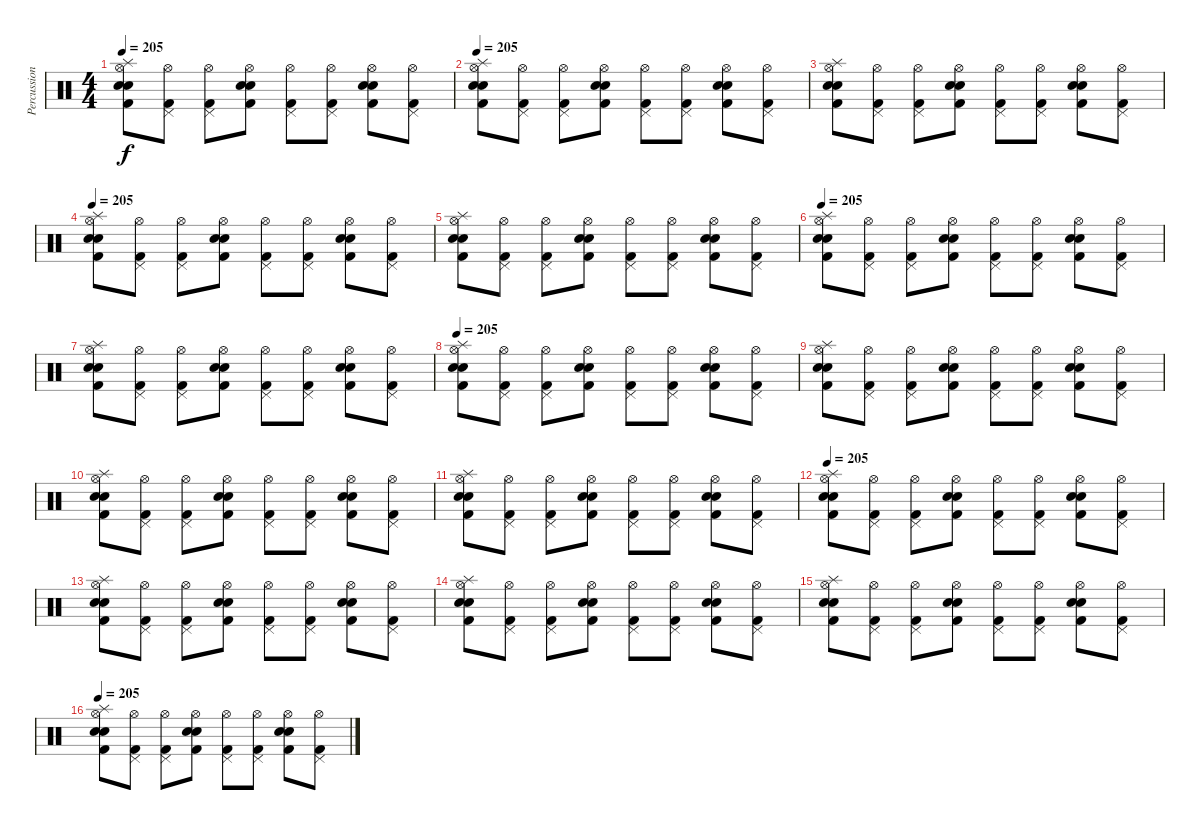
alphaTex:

\track ("Percussions" "Percussion") {instrument percussion}
\staff {score}
\articulation defaults
\ts (4 4)
\tempo 205
\clef neutral
\ks c
("Splash (hit)" "Hi-Hat (open)" "Kick (hit) 2" "Snare (hit) 2" "Electric Snare (hit)").8{dy f} ("Hi-Hat (open)" "Pedal Hi-Hat (hit)" "Kick (hit) 2").8 ("Hi-Hat (open)" "Pedal Hi-Hat (hit)" "Kick (hit) 2").8 ("Hi-Hat (open)" "Kick (hit) 2" "Snare (hit) 2" "Electric Snare (hit)").8 ("Hi-Hat (open)" "Pedal Hi-Hat (hit)" "Kick (hit) 2").8 ("Hi-Hat (open)" "Pedal Hi-Hat (hit)" "Kick (hit) 2").8 ("Hi-Hat (open)" "Kick (hit) 2" "Snare (hit) 2" "Electric Snare (hit)").8 ("Hi-Hat (open)" "Pedal Hi-Hat (hit)" "Kick (hit) 2").8 |
\tempo 205
("Splash (hit)" "Hi-Hat (open)" "Kick (hit) 2" "Snare (hit) 2" "Electric Snare (hit)").8 ("Hi-Hat (open)" "Pedal Hi-Hat (hit)" "Kick (hit) 2").8 ("Hi-Hat (open)" "Pedal Hi-Hat (hit)" "Kick (hit) 2").8 ("Hi-Hat (open)" "Kick (hit) 2" "Snare (hit) 2" "Electric Snare (hit)").8 ("Hi-Hat (open)" "Pedal Hi-Hat (hit)" "Kick (hit) 2").8 ("Hi-Hat (open)" "Pedal Hi-Hat (hit)" "Kick (hit) 2").8 ("Hi-Hat (open)" "Kick (hit) 2" "Snare (hit) 2" "Electric Snare (hit)").8 ("Hi-Hat (open)" "Pedal Hi-Hat (hit)" "Kick (hit) 2").8 |
("Splash (hit)" "Hi-Hat (open)" "Kick (hit) 2" "Snare (hit) 2" "Electric Snare (hit)").8 ("Hi-Hat (open)" "Pedal Hi-Hat (hit)" "Kick (hit) 2").8 ("Hi-Hat (open)" "Pedal Hi-Hat (hit)" "Kick (hit) 2").8 ("Hi-Hat (open)" "Kick (hit) 2" "Snare (hit) 2" "Electric Snare (hit)").8 ("Hi-Hat (open)" "Pedal Hi-Hat (hit)" "Kick (hit) 2").8 ("Hi-Hat (open)" "Pedal Hi-Hat (hit)" "Kick (hit) 2").8 ("Hi-Hat (open)" "Kick (hit) 2" "Snare (hit) 2" "Electric Snare (hit)").8 ("Hi-Hat (open)" "Pedal Hi-Hat (hit)" "Kick (hit) 2").8 |
\tempo 205
("Splash (hit)" "Hi-Hat (open)" "Kick (hit) 2" "Snare (hit) 2" "Electric Snare (hit)").8 ("Hi-Hat (open)" "Pedal Hi-Hat (hit)" "Kick (hit) 2").8 ("Hi-Hat (open)" "Pedal Hi-Hat (hit)" "Kick (hit) 2").8 ("Hi-Hat (open)" "Kick (hit) 2" "Snare (hit) 2" "Electric Snare (hit)").8 ("Hi-Hat (open)" "Pedal Hi-Hat (hit)" "Kick (hit) 2").8 ("Hi-Hat (open)" "Pedal Hi-Hat (hit)" "Kick (hit) 2").8 ("Hi-Hat (open)" "Kick (hit) 2" "Snare (hit) 2" "Electric Snare (hit)").8 ("Hi-Hat (open)" "Pedal Hi-Hat (hit)" "Kick (hit) 2").8 |
("Splash (hit)" "Hi-Hat (open)" "Kick (hit) 2" "Snare (hit) 2" "Electric Snare (hit)").8 ("Hi-Hat (open)" "Pedal Hi-Hat (hit)" "Kick (hit) 2").8 ("Hi-Hat (open)" "Pedal Hi-Hat (hit)" "Kick (hit) 2").8 ("Hi-Hat (open)" "Kick (hit) 2" "Snare (hit) 2" "Electric Snare (hit)").8 ("Hi-Hat (open)" "Pedal Hi-Hat (hit)" "Kick (hit) 2").8 ("Hi-Hat (open)" "Pedal Hi-Hat (hit)" "Kick (hit) 2").8 ("Hi-Hat (open)" "Kick (hit) 2" "Snare (hit) 2" "Electric Snare (hit)").8 ("Hi-Hat (open)" "Pedal Hi-Hat (hit)" "Kick (hit) 2").8 |
\tempo 205
("Splash (hit)" "Hi-Hat (open)" "Kick (hit) 2" "Snare (hit) 2" "Electric Snare (hit)").8 ("Hi-Hat (open)" "Pedal Hi-Hat (hit)" "Kick (hit) 2").8 ("Hi-Hat (open)" "Pedal Hi-Hat (hit)" "Kick (hit) 2").8 ("Hi-Hat (open)" "Kick (hit) 2" "Snare (hit) 2" "Electric Snare (hit)").8 ("Hi-Hat (open)" "Pedal Hi-Hat (hit)" "Kick (hit) 2").8 ("Hi-Hat (open)" "Pedal Hi-Hat (hit)" "Kick (hit) 2").8 ("Hi-Hat (open)" "Kick (hit) 2" "Snare (hit) 2" "Electric Snare (hit)").8 ("Hi-Hat (open)" "Pedal Hi-Hat (hit)" "Kick (hit) 2").8 |
("Splash (hit)" "Hi-Hat (open)" "Kick (hit) 2" "Snare (hit) 2" "Electric Snare (hit)").8 ("Hi-Hat (open)" "Pedal Hi-Hat (hit)" "Kick (hit) 2").8 ("Hi-Hat (open)" "Pedal Hi-Hat (hit)" "Kick (hit) 2").8 ("Hi-Hat (open)" "Kick (hit) 2" "Snare (hit) 2" "Electric Snare (hit)").8 ("Hi-Hat (open)" "Pedal Hi-Hat (hit)" "Kick (hit) 2").8 ("Hi-Hat (open)" "Pedal Hi-Hat (hit)" "Kick (hit) 2").8 ("Hi-Hat (open)" "Kick (hit) 2" "Snare (hit) 2" "Electric Snare (hit)").8 ("Hi-Hat (open)" "Pedal Hi-Hat (hit)" "Kick (hit) 2").8 |
\tempo 205
("Splash (hit)" "Hi-Hat (open)" "Kick (hit) 2" "Snare (hit) 2" "Electric Snare (hit)").8 ("Hi-Hat (open)" "Pedal Hi-Hat (hit)" "Kick (hit) 2").8 ("Hi-Hat (open)" "Pedal Hi-Hat (hit)" "Kick (hit) 2").8 ("Hi-Hat (open)" "Kick (hit) 2" "Snare (hit) 2" "Electric Snare (hit)").8 ("Hi-Hat (open)" "Pedal Hi-Hat (hit)" "Kick (hit) 2").8 ("Hi-Hat (open)" "Pedal Hi-Hat (hit)" "Kick (hit) 2").8 ("Hi-Hat (open)" "Kick (hit) 2" "Snare (hit) 2" "Electric Snare (hit)").8 ("Hi-Hat (open)" "Pedal Hi-Hat (hit)" "Kick (hit) 2").8 |
("Splash (hit)" "Hi-Hat (open)" "Kick (hit) 2" "Snare (hit) 2" "Electric Snare (hit)").8 ("Hi-Hat (open)" "Pedal Hi-Hat (hit)" "Kick (hit) 2").8 ("Hi-Hat (open)" "Pedal Hi-Hat (hit)" "Kick (hit) 2").8 ("Hi-Hat (open)" "Kick (hit) 2" "Snare (hit) 2" "Electric Snare (hit)").8 ("Hi-Hat (open)" "Pedal Hi-Hat (hit)" "Kick (hit) 2").8 ("Hi-Hat (open)" "Pedal Hi-Hat (hit)" "Kick (hit) 2").8 ("Hi-Hat (open)" "Kick (hit) 2" "Snare (hit) 2" "Electric Snare (hit)").8 ("Hi-Hat (open)" "Pedal Hi-Hat (hit)" "Kick (hit) 2").8 |
("Splash (hit)" "Hi-Hat (open)" "Kick (hit) 2" "Snare (hit) 2" "Electric Snare (hit)").8 ("Hi-Hat (open)" "Pedal Hi-Hat (hit)" "Kick (hit) 2").8 ("Hi-Hat (open)" "Pedal Hi-Hat (hit)" "Kick (hit) 2").8 ("Hi-Hat (open)" "Kick (hit) 2" "Snare (hit) 2" "Electric Snare (hit)").8 ("Hi-Hat (open)" "Pedal Hi-Hat (hit)" "Kick (hit) 2").8 ("Hi-Hat (open)" "Pedal Hi-Hat (hit)" "Kick (hit) 2").8 ("Hi-Hat (open)" "Kick (hit) 2" "Snare (hit) 2" "Electric Snare (hit)").8 ("Hi-Hat (open)" "Pedal Hi-Hat (hit)" "Kick (hit) 2").8 |
("Splash (hit)" "Hi-Hat (open)" "Kick (hit) 2" "Snare (hit) 2" "Electric Snare (hit)").8 ("Hi-Hat (open)" "Pedal Hi-Hat (hit)" "Kick (hit) 2").8 ("Hi-Hat (open)" "Pedal Hi-Hat (hit)" "Kick (hit) 2").8 ("Hi-Hat (open)" "Kick (hit) 2" "Snare (hit) 2" "Electric Snare (hit)").8 ("Hi-Hat (open)" "Pedal Hi-Hat (hit)" "Kick (hit) 2").8 ("Hi-Hat (open)" "Pedal Hi-Hat (hit)" "Kick (hit) 2").8 ("Hi-Hat (open)" "Kick (hit) 2" "Snare (hit) 2" "Electric Snare (hit)").8 ("Hi-Hat (open)" "Pedal Hi-Hat (hit)" "Kick (hit) 2").8 |
\tempo 205
("Splash (hit)" "Hi-Hat (open)" "Kick (hit) 2" "Snare (hit) 2" "Electric Snare (hit)").8 ("Hi-Hat (open)" "Pedal Hi-Hat (hit)" "Kick (hit) 2").8 ("Hi-Hat (open)" "Pedal Hi-Hat (hit)" "Kick (hit) 2").8 ("Hi-Hat (open)" "Kick (hit) 2" "Snare (hit) 2" "Electric Snare (hit)").8 ("Hi-Hat (open)" "Pedal Hi-Hat (hit)" "Kick (hit) 2").8 ("Hi-Hat (open)" "Pedal Hi-Hat (hit)" "Kick (hit) 2").8 ("Hi-Hat (open)" "Kick (hit) 2" "Snare (hit) 2" "Electric Snare (hit)").8 ("Hi-Hat (open)" "Pedal Hi-Hat (hit)" "Kick (hit) 2").8 |
("Splash (hit)" "Hi-Hat (open)" "Kick (hit) 2" "Snare (hit) 2" "Electric Snare (hit)").8 ("Hi-Hat (open)" "Pedal Hi-Hat (hit)" "Kick (hit) 2").8 ("Hi-Hat (open)" "Pedal Hi-Hat (hit)" "Kick (hit) 2").8 ("Hi-Hat (open)" "Kick (hit) 2" "Snare (hit) 2" "Electric Snare (hit)").8 ("Hi-Hat (open)" "Pedal Hi-Hat (hit)" "Kick (hit) 2").8 ("Hi-Hat (open)" "Pedal Hi-Hat (hit)" "Kick (hit) 2").8 ("Hi-Hat (open)" "Kick (hit) 2" "Snare (hit) 2" "Electric Snare (hit)").8 ("Hi-Hat (open)" "Pedal Hi-Hat (hit)" "Kick (hit) 2").8 |
("Splash (hit)" "Hi-Hat (open)" "Kick (hit) 2" "Snare (hit) 2" "Electric Snare (hit)").8 ("Hi-Hat (open)" "Pedal Hi-Hat (hit)" "Kick (hit) 2").8 ("Hi-Hat (open)" "Pedal Hi-Hat (hit)" "Kick (hit) 2").8 ("Hi-Hat (open)" "Kick (hit) 2" "Snare (hit) 2" "Electric Snare (hit)").8 ("Hi-Hat (open)" "Pedal Hi-Hat (hit)" "Kick (hit) 2").8 ("Hi-Hat (open)" "Pedal Hi-Hat (hit)" "Kick (hit) 2").8 ("Hi-Hat (open)" "Kick (hit) 2" "Snare (hit) 2" "Electric Snare (hit)").8 ("Hi-Hat (open)" "Pedal Hi-Hat (hit)" "Kick (hit) 2").8 |
("Splash (hit)" "Hi-Hat (open)" "Kick (hit) 2" "Snare (hit) 2" "Electric Snare (hit)").8 ("Hi-Hat (open)" "Pedal Hi-Hat (hit)" "Kick (hit) 2").8 ("Hi-Hat (open)" "Pedal Hi-Hat (hit)" "Kick (hit) 2").8 ("Hi-Hat (open)" "Kick (hit) 2" "Snare (hit) 2" "Electric Snare (hit)").8 ("Hi-Hat (open)" "Pedal Hi-Hat (hit)" "Kick (hit) 2").8 ("Hi-Hat (open)" "Pedal Hi-Hat (hit)" "Kick (hit) 2").8 ("Hi-Hat (open)" "Kick (hit) 2" "Snare (hit) 2" "Electric Snare (hit)").8 ("Hi-Hat (open)" "Pedal Hi-Hat (hit)" "Kick (hit) 2").8 |
\tempo 205
("Splash (hit)" "Hi-Hat (open)" "Kick (hit) 2" "Snare (hit) 2" "Electric Snare (hit)").8 ("Hi-Hat (open)" "Pedal Hi-Hat (hit)" "Kick (hit) 2").8 ("Hi-Hat (open)" "Pedal Hi-Hat (hit)" "Kick (hit) 2").8 ("Hi-Hat (open)" "Kick (hit) 2" "Snare (hit) 2" "Electric Snare (hit)").8 ("Hi-Hat (open)" "Pedal Hi-Hat (hit)" "Kick (hit) 2").8 ("Hi-Hat (open)" "Pedal Hi-Hat (hit)" "Kick (hit) 2").8 ("Hi-Hat (open)" "Kick (hit) 2" "Snare (hit) 2" "Electric Snare (hit)").8 ("Hi-Hat (open)" "Pedal Hi-Hat (hit)" "Kick (hit) 2").8
